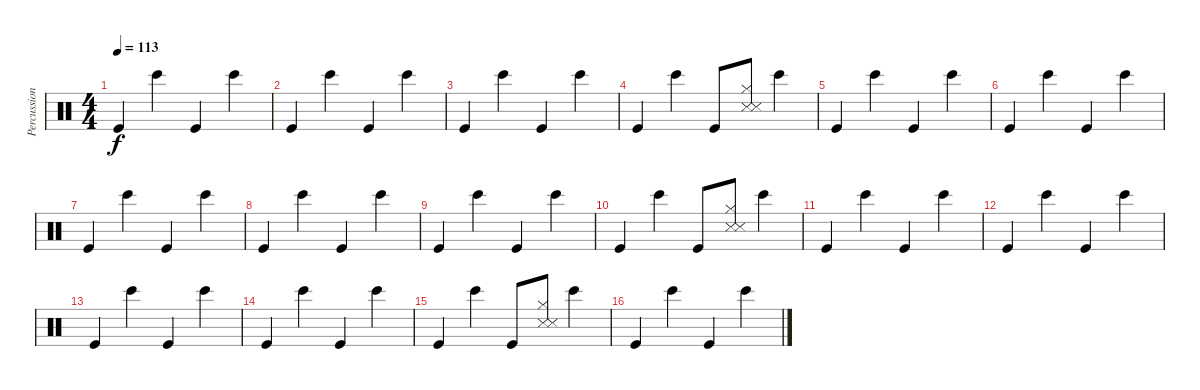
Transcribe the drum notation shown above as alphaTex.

\track ("Percussion" "Percussion") {instrument percussion}
\staff {score}
\articulation defaults
\ts (4 4)
\tempo 113
\clef neutral
\ks c "Kick (hit)".4{dy f} "Bongo High (hit)".4 "Kick (hit)".4 "Bongo High (hit)".4
|
"Kick (hit)".4 "Bongo High (hit)".4 "Kick (hit)".4 "Bongo High (hit)".4 |
"Kick (hit)".4 "Bongo High (hit)".4 "Kick (hit)".4 "Bongo High (hit)".4 |
"Kick (hit)".4 "Bongo High (hit)".4 "Kick (hit)".8 ("Metronome (hit)" "Hi-Hat (closed)" "Snare (side stick) 3").8 "Bongo High (hit)".4 |
"Kick (hit)".4 "Bongo High (hit)".4 "Kick (hit)".4 "Bongo High (hit)".4 |
"Kick (hit)".4 "Bongo High (hit)".4 "Kick (hit)".4 "Bongo High (hit)".4 |
"Kick (hit)".4 "Bongo High (hit)".4 "Kick (hit)".4 "Bongo High (hit)".4 |
"Kick (hit)".4 "Bongo High (hit)".4 "Kick (hit)".4 "Bongo High (hit)".4 |
"Kick (hit)".4 "Bongo High (hit)".4 "Kick (hit)".4 "Bongo High (hit)".4 |
"Kick (hit)".4 "Bongo High (hit)".4 "Kick (hit)".8 ("Metronome (hit)" "Hi-Hat (closed)" "Snare (side stick) 3").8 "Bongo High (hit)".4 |
"Kick (hit)".4 "Bongo High (hit)".4 "Kick (hit)".4 "Bongo High (hit)".4 |
"Kick (hit)".4 "Bongo High (hit)".4 "Kick (hit)".4 "Bongo High (hit)".4 |
"Kick (hit)".4 "Bongo High (hit)".4 "Kick (hit)".4 "Bongo High (hit)".4 |
"Kick (hit)".4 "Bongo High (hit)".4 "Kick (hit)".4 "Bongo High (hit)".4 |
"Kick (hit)".4 "Bongo High (hit)".4 "Kick (hit)".8 ("Metronome (hit)" "Hi-Hat (closed)" "Snare (side stick) 3").8 "Bongo High (hit)".4 |
"Kick (hit)".4 "Bongo High (hit)".4 "Kick (hit)".4 "Bongo High (hit)".4
